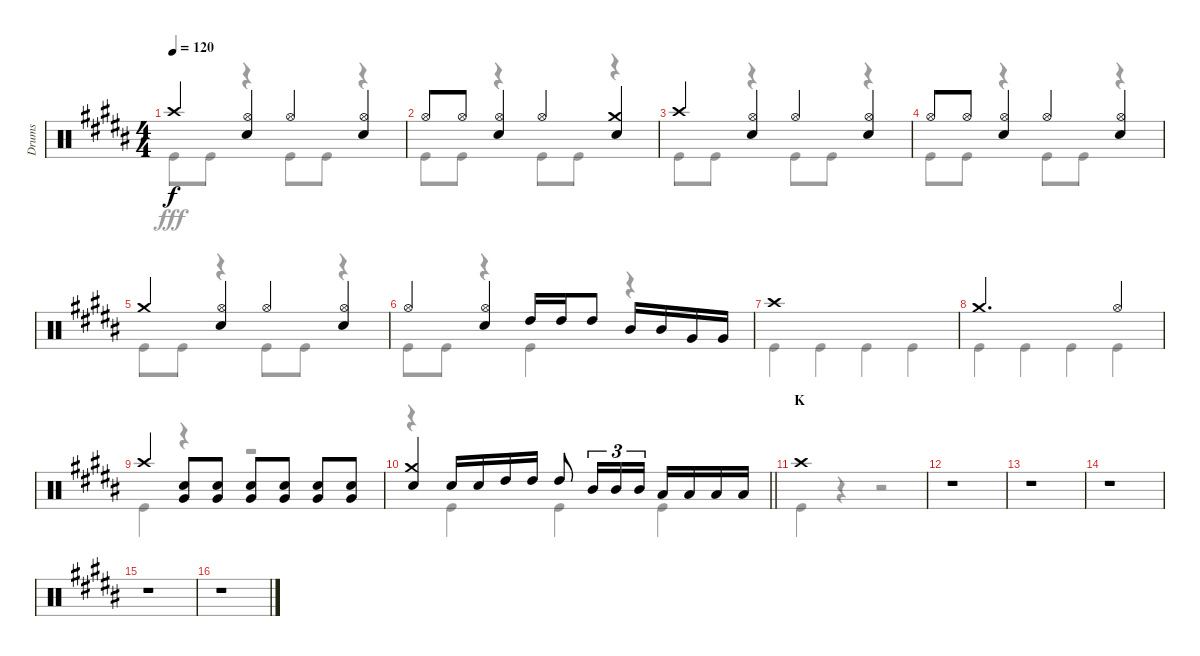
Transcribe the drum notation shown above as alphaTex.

\track ("Drums" "Drums") {instrument percussion}
\staff {score}
\articulation defaults
\voice
\ts (4 4)
\tempo 120
\clef neutral
\ks b "Crash high (hit)".4{dy f}
("Hi-Hat (open)" "Snare (hit) 2").4 "Hi-Hat (open)".4 ("Hi-Hat (open)" "Snare (hit) 2").4 |
"Hi-Hat (open)".8 "Hi-Hat (open)".8 ("Hi-Hat (open)" "Snare (hit) 2").4 "Hi-Hat (open)".4 ("Crash medium (hit)" "Snare (hit) 2").4 |
"Crash high (hit)".4 ("Hi-Hat (open)" "Snare (hit) 2").4 "Hi-Hat (open)".4 ("Hi-Hat (open)" "Snare (hit) 2").4 |
"Hi-Hat (open)".8 "Hi-Hat (open)".8 ("Hi-Hat (open)" "Snare (hit) 2").4 "Hi-Hat (open)".4 ("Hi-Hat (open)" "Snare (hit) 2").4 |
"Crash medium (hit)".4 ("Hi-Hat (open)" "Snare (hit) 2").4 "Hi-Hat (open)".4 ("Hi-Hat (open)" "Snare (hit) 2").4 |
"Hi-Hat (open)".4 ("Hi-Hat (open)" "Snare (hit) 2").4 "High Tom (hit)".16 "High Tom (hit)".16 "High Tom (hit)".8 "Mid Tom (hit)".16 "Mid Tom (hit)".16 "Very Low Tom (hit)".16 "Very Low Tom (hit)".16 |
"Crash high (hit)".1 |
"Crash medium (hit)".2{d} "Hi-Hat (open)".4 |
"Crash high (hit)".4 ("Snare (hit) 2" "Very Low Tom (hit)").8 ("Snare (hit) 2" "Very Low Tom (hit)").8 ("Snare (hit) 2" "Very Low Tom (hit)").8 ("Snare (hit) 2" "Very Low Tom (hit)").8 ("Snare (hit) 2" "Very Low Tom (hit)").8 ("Snare (hit) 2" "Very Low Tom (hit)").8 |
\barLineRight lightlight
("Crash medium (hit)" "Snare (hit) 2").4 "Snare (hit) 2".16 "Snare (hit) 2".16 "High Tom (hit)".16 "High Tom (hit)".16 "High Tom (hit)".8 "Mid Tom (hit)".16{tu (3 2)} "Mid Tom (hit)".16{tu (3 2)} "Mid Tom (hit)".16{tu (3 2)} "Low Tom (hit)".16 "Low Tom (hit)".16 "Low Tom (hit)".16 "Low Tom (hit)".16 |
\section ("" "K")
"Crash high (hit)".1 |
r.1 |
r.1 |
r.1 |
r.1 |
r.1
\voice
\clef neutral
\ottava regular
\simile none
\ks b "Kick (hit)".8{dy fff} "Kick (hit)".8
r.4 "Kick (hit)".8 "Kick (hit)".8 r.4 |
"Kick (hit)".8 "Kick (hit)".8 r.4 "Kick (hit)".8 "Kick (hit)".8 r.4 |
"Kick (hit)".8 "Kick (hit)".8 r.4 "Kick (hit)".8 "Kick (hit)".8 r.4 |
"Kick (hit)".8 "Kick (hit)".8 r.4 "Kick (hit)".8 "Kick (hit)".8 r.4 |
"Kick (hit)".8 "Kick (hit)".8 r.4 "Kick (hit)".8 "Kick (hit)".8 r.4 |
"Kick (hit)".8 "Kick (hit)".8 r.4 "Kick (hit)".4 r.4 |
"Kick (hit)".4 "Kick (hit)".4 "Kick (hit)".4 "Kick (hit)".4 |
"Kick (hit)".4 "Kick (hit)".4 "Kick (hit)".4 "Kick (hit)".4 |
"Kick (hit)".4 r.4 r.2 |
\barLineRight lightlight
r.4 "Kick (hit)".4 "Kick (hit)".4 "Kick (hit)".4 |
"Kick (hit)".4 r.4 r.2 |
r.1 |
r.1 |
r.1 |
r.1 |
r.1
